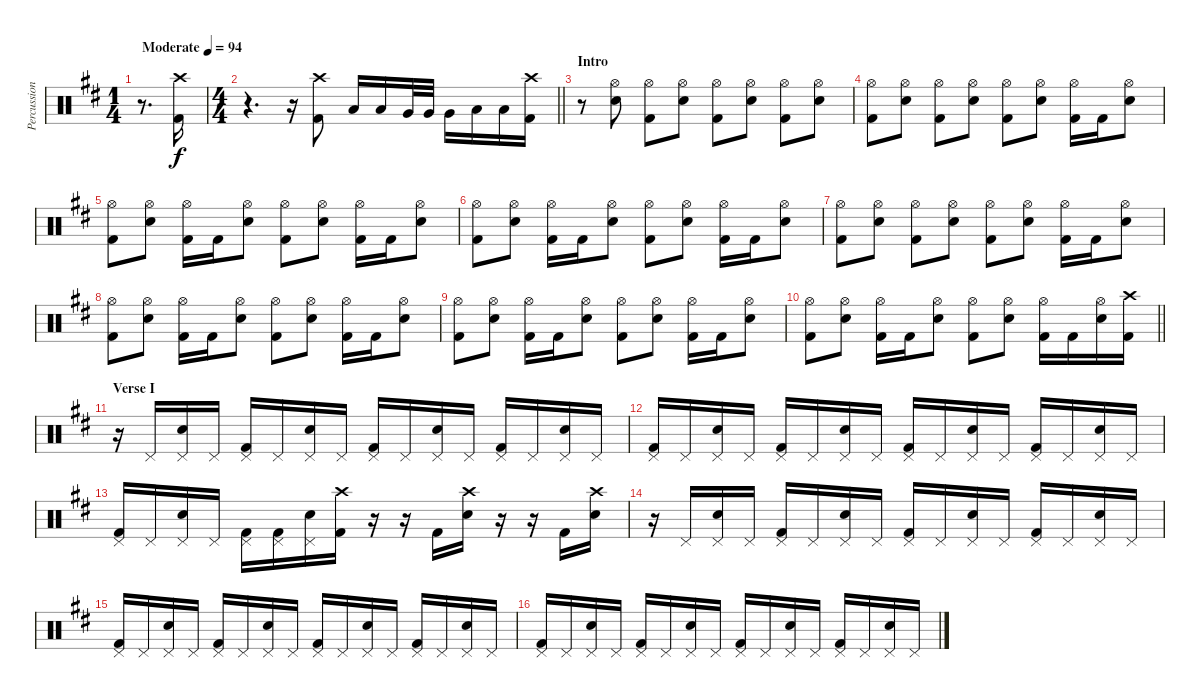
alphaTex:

\track ("Percussion" "Percussion") {instrument percussion}
\staff {score}
\articulation defaults
\ts (1 4)
\tempo (94 "Moderate")
\clef neutral
\ks bminor
r.8{d dy f} ("Crash high (hit)" "Kick (hit) 2").16 |
\ts (4 4)
\barLineRight lightlight
r.4{d} r.16 ("Crash high (hit)" "Kick (hit) 2").8 "Low Tom (hit)".16 "Low Tom (hit)".16 "Very Low Tom (hit)".32 "Very Low Tom (hit)".32 "Very Low Tom (hit)".16 "Low Floor Tom (hit)".16 "Low Floor Tom (hit)".16 ("Crash high (hit)" "Kick (hit) 2").16 |
\section ("" "Intro")
r.8 ("Hi-Hat (open)" "Electric Snare (hit)").8 ("Hi-Hat (open)" "Kick (hit) 2").8 ("Hi-Hat (open)" "Electric Snare (hit)").8 ("Hi-Hat (open)" "Kick (hit) 2").8 ("Hi-Hat (open)" "Electric Snare (hit)").8 ("Hi-Hat (open)" "Kick (hit) 2").8 ("Hi-Hat (open)" "Electric Snare (hit)").8 |
("Hi-Hat (open)" "Kick (hit) 2").8 ("Hi-Hat (open)" "Electric Snare (hit)").8 ("Hi-Hat (open)" "Kick (hit) 2").8 ("Hi-Hat (open)" "Electric Snare (hit)").8 ("Hi-Hat (open)" "Kick (hit) 2").8 ("Hi-Hat (open)" "Electric Snare (hit)").8 ("Hi-Hat (open)" "Kick (hit) 2").16 "Kick (hit) 2".16 ("Hi-Hat (open)" "Electric Snare (hit)").8 |
("Hi-Hat (open)" "Kick (hit) 2").8 ("Hi-Hat (open)" "Electric Snare (hit)").8 ("Hi-Hat (open)" "Kick (hit) 2").16 "Kick (hit) 2".16 ("Hi-Hat (open)" "Electric Snare (hit)").8 ("Hi-Hat (open)" "Kick (hit) 2").8 ("Hi-Hat (open)" "Electric Snare (hit)").8 ("Hi-Hat (open)" "Kick (hit) 2").16 "Kick (hit) 2".16 ("Hi-Hat (open)" "Electric Snare (hit)").8 |
("Hi-Hat (open)" "Kick (hit) 2").8 ("Hi-Hat (open)" "Electric Snare (hit)").8 ("Hi-Hat (open)" "Kick (hit) 2").16 "Kick (hit) 2".16 ("Hi-Hat (open)" "Electric Snare (hit)").8 ("Hi-Hat (open)" "Kick (hit) 2").8 ("Hi-Hat (open)" "Electric Snare (hit)").8 ("Hi-Hat (open)" "Kick (hit) 2").16 "Kick (hit) 2".16 ("Hi-Hat (open)" "Electric Snare (hit)").8 |
("Hi-Hat (open)" "Kick (hit) 2").8 ("Hi-Hat (open)" "Electric Snare (hit)").8 ("Hi-Hat (open)" "Kick (hit) 2").8 ("Hi-Hat (open)" "Electric Snare (hit)").8 ("Hi-Hat (open)" "Kick (hit) 2").8 ("Hi-Hat (open)" "Electric Snare (hit)").8 ("Hi-Hat (open)" "Kick (hit) 2").16 "Kick (hit) 2".16 ("Hi-Hat (open)" "Electric Snare (hit)").8 |
("Hi-Hat (open)" "Kick (hit) 2").8 ("Hi-Hat (open)" "Electric Snare (hit)").8 ("Hi-Hat (open)" "Kick (hit) 2").16 "Kick (hit) 2".16 ("Hi-Hat (open)" "Electric Snare (hit)").8 ("Hi-Hat (open)" "Kick (hit) 2").8 ("Hi-Hat (open)" "Electric Snare (hit)").8 ("Hi-Hat (open)" "Kick (hit) 2").16 "Kick (hit) 2".16 ("Hi-Hat (open)" "Electric Snare (hit)").8 |
("Hi-Hat (open)" "Kick (hit) 2").8 ("Hi-Hat (open)" "Electric Snare (hit)").8 ("Hi-Hat (open)" "Kick (hit) 2").16 "Kick (hit) 2".16 ("Hi-Hat (open)" "Electric Snare (hit)").8 ("Hi-Hat (open)" "Kick (hit) 2").8 ("Hi-Hat (open)" "Electric Snare (hit)").8 ("Hi-Hat (open)" "Kick (hit) 2").16 "Kick (hit) 2".16 ("Hi-Hat (open)" "Electric Snare (hit)").8 |
\barLineRight lightlight
("Hi-Hat (open)" "Kick (hit) 2").8 ("Hi-Hat (open)" "Electric Snare (hit)").8 ("Hi-Hat (open)" "Kick (hit) 2").16 "Kick (hit) 2".16 ("Hi-Hat (open)" "Electric Snare (hit)").8 ("Hi-Hat (open)" "Kick (hit) 2").8 ("Hi-Hat (open)" "Electric Snare (hit)").8 ("Hi-Hat (open)" "Kick (hit) 2").16 "Kick (hit) 2".16 ("Hi-Hat (open)" "Electric Snare (hit)").16 ("Crash high (hit)" "Kick (hit) 2").16 |
\section ("" "Verse I")
r.16 "Pedal Hi-Hat (hit)".16 ("Pedal Hi-Hat (hit)" "Electric Snare (hit)").16 "Pedal Hi-Hat (hit)".16 ("Pedal Hi-Hat (hit)" "Kick (hit) 2").16 "Pedal Hi-Hat (hit)".16 ("Pedal Hi-Hat (hit)" "Electric Snare (hit)").16 "Pedal Hi-Hat (hit)".16 ("Pedal Hi-Hat (hit)" "Kick (hit) 2").16 "Pedal Hi-Hat (hit)".16 ("Pedal Hi-Hat (hit)" "Electric Snare (hit)").16 "Pedal Hi-Hat (hit)".16 ("Pedal Hi-Hat (hit)" "Kick (hit) 2").16 "Pedal Hi-Hat (hit)".16 ("Pedal Hi-Hat (hit)" "Electric Snare (hit)").16 "Pedal Hi-Hat (hit)".16 |
("Pedal Hi-Hat (hit)" "Kick (hit) 2").16 "Pedal Hi-Hat (hit)".16 ("Pedal Hi-Hat (hit)" "Electric Snare (hit)").16 "Pedal Hi-Hat (hit)".16 ("Pedal Hi-Hat (hit)" "Kick (hit) 2").16 "Pedal Hi-Hat (hit)".16 ("Pedal Hi-Hat (hit)" "Electric Snare (hit)").16 "Pedal Hi-Hat (hit)".16 ("Pedal Hi-Hat (hit)" "Kick (hit) 2").16 "Pedal Hi-Hat (hit)".16 ("Pedal Hi-Hat (hit)" "Electric Snare (hit)").16 "Pedal Hi-Hat (hit)".16 ("Pedal Hi-Hat (hit)" "Kick (hit) 2").16 "Pedal Hi-Hat (hit)".16 ("Pedal Hi-Hat (hit)" "Electric Snare (hit)").16 "Pedal Hi-Hat (hit)".16 |
("Pedal Hi-Hat (hit)" "Kick (hit) 2").16 "Pedal Hi-Hat (hit)".16 ("Pedal Hi-Hat (hit)" "Electric Snare (hit)").16 "Pedal Hi-Hat (hit)".16 ("Pedal Hi-Hat (hit)" "Kick (hit) 2").16 ("Pedal Hi-Hat (hit)" "Kick (hit) 2").16 ("Pedal Hi-Hat (hit)" "Electric Snare (hit)").16 ("Crash high (hit)" "Kick (hit) 2").16 r.16 r.16 "Kick (hit) 2".16 ("Crash high (hit)" "Electric Snare (hit)").16 r.16 r.16 "Kick (hit) 2".16 ("Crash high (hit)" "Electric Snare (hit)").16 |
r.16 "Pedal Hi-Hat (hit)".16 ("Pedal Hi-Hat (hit)" "Electric Snare (hit)").16 "Pedal Hi-Hat (hit)".16 ("Pedal Hi-Hat (hit)" "Kick (hit) 2").16 "Pedal Hi-Hat (hit)".16 ("Pedal Hi-Hat (hit)" "Electric Snare (hit)").16 "Pedal Hi-Hat (hit)".16 ("Pedal Hi-Hat (hit)" "Kick (hit) 2").16 "Pedal Hi-Hat (hit)".16 ("Pedal Hi-Hat (hit)" "Electric Snare (hit)").16 "Pedal Hi-Hat (hit)".16 ("Pedal Hi-Hat (hit)" "Kick (hit) 2").16 "Pedal Hi-Hat (hit)".16 ("Pedal Hi-Hat (hit)" "Electric Snare (hit)").16 "Pedal Hi-Hat (hit)".16 |
("Pedal Hi-Hat (hit)" "Kick (hit) 2").16 "Pedal Hi-Hat (hit)".16 ("Pedal Hi-Hat (hit)" "Electric Snare (hit)").16 "Pedal Hi-Hat (hit)".16 ("Pedal Hi-Hat (hit)" "Kick (hit) 2").16 "Pedal Hi-Hat (hit)".16 ("Pedal Hi-Hat (hit)" "Electric Snare (hit)").16 "Pedal Hi-Hat (hit)".16 ("Pedal Hi-Hat (hit)" "Kick (hit) 2").16 "Pedal Hi-Hat (hit)".16 ("Pedal Hi-Hat (hit)" "Electric Snare (hit)").16 "Pedal Hi-Hat (hit)".16 ("Pedal Hi-Hat (hit)" "Kick (hit) 2").16 "Pedal Hi-Hat (hit)".16 ("Pedal Hi-Hat (hit)" "Electric Snare (hit)").16 "Pedal Hi-Hat (hit)".16 |
("Pedal Hi-Hat (hit)" "Kick (hit) 2").16 "Pedal Hi-Hat (hit)".16 ("Pedal Hi-Hat (hit)" "Electric Snare (hit)").16 "Pedal Hi-Hat (hit)".16 ("Pedal Hi-Hat (hit)" "Kick (hit) 2").16 "Pedal Hi-Hat (hit)".16 ("Pedal Hi-Hat (hit)" "Electric Snare (hit)").16 "Pedal Hi-Hat (hit)".16 ("Pedal Hi-Hat (hit)" "Kick (hit) 2").16 "Pedal Hi-Hat (hit)".16 ("Pedal Hi-Hat (hit)" "Electric Snare (hit)").16 "Pedal Hi-Hat (hit)".16 ("Pedal Hi-Hat (hit)" "Kick (hit) 2").16 "Pedal Hi-Hat (hit)".16 ("Pedal Hi-Hat (hit)" "Electric Snare (hit)").16 "Pedal Hi-Hat (hit)".16
